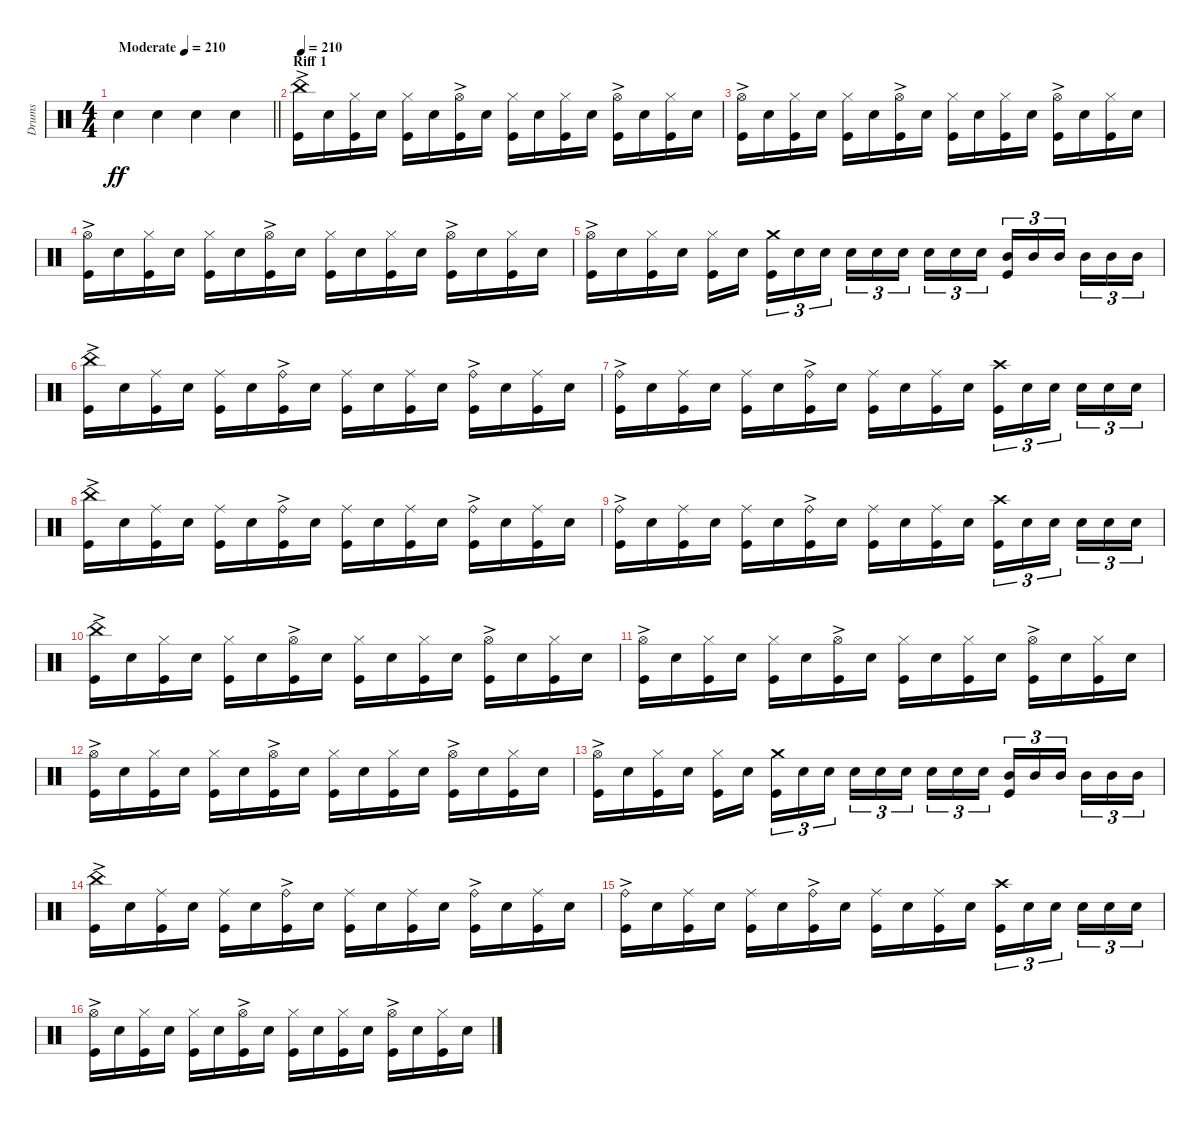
\track ("Drums" "Drums") {instrument percussion}
\staff {score}
\articulation defaults
\ts (4 4)
\tempo (210 "Moderate")
\clef neutral
\barLineRight lightlight
\ks c "Electric Snare (hit)".4{dy ff} "Electric Snare (hit)".4 "Electric Snare (hit)".4 "Electric Snare (hit)".4
|
\section ("" "Riff 1")
\tempo 210
("China (hit)"{ac} "Kick (hit)").16 "Electric Snare (hit)".16 ("Hi-Hat (closed)" "Kick (hit)").16 "Electric Snare (hit)".16 ("Hi-Hat (closed)" "Kick (hit)").16 "Electric Snare (hit)".16 ("Hi-Hat (open)"{ac} "Kick (hit)").16 "Electric Snare (hit)".16 ("Hi-Hat (closed)" "Kick (hit)").16 "Electric Snare (hit)".16 ("Hi-Hat (closed)" "Kick (hit)").16 "Electric Snare (hit)".16 ("Hi-Hat (open)"{ac} "Kick (hit)").16 "Electric Snare (hit)".16 ("Hi-Hat (closed)" "Kick (hit)").16 "Electric Snare (hit)".16 |
("Hi-Hat (open)"{ac} "Kick (hit)").16 "Electric Snare (hit)".16 ("Hi-Hat (closed)" "Kick (hit)").16 "Electric Snare (hit)".16 ("Hi-Hat (closed)" "Kick (hit)").16 "Electric Snare (hit)".16 ("Hi-Hat (open)"{ac} "Kick (hit)").16 "Electric Snare (hit)".16 ("Hi-Hat (closed)" "Kick (hit)").16 "Electric Snare (hit)".16 ("Hi-Hat (closed)" "Kick (hit)").16 "Electric Snare (hit)".16 ("Hi-Hat (open)"{ac} "Kick (hit)").16 "Electric Snare (hit)".16 ("Hi-Hat (closed)" "Kick (hit)").16 "Electric Snare (hit)".16 |
("Hi-Hat (open)"{ac} "Kick (hit)").16 "Electric Snare (hit)".16 ("Hi-Hat (closed)" "Kick (hit)").16 "Electric Snare (hit)".16 ("Hi-Hat (closed)" "Kick (hit)").16 "Electric Snare (hit)".16 ("Hi-Hat (open)"{ac} "Kick (hit)").16 "Electric Snare (hit)".16 ("Hi-Hat (closed)" "Kick (hit)").16 "Electric Snare (hit)".16 ("Hi-Hat (closed)" "Kick (hit)").16 "Electric Snare (hit)".16 ("Hi-Hat (open)"{ac} "Kick (hit)").16 "Electric Snare (hit)".16 ("Hi-Hat (closed)" "Kick (hit)").16 "Electric Snare (hit)".16 |
("Hi-Hat (open)"{ac} "Kick (hit)").16 "Electric Snare (hit)".16 ("Hi-Hat (closed)" "Kick (hit)").16 "Electric Snare (hit)".16 ("Hi-Hat (closed)" "Kick (hit)").16 "Electric Snare (hit)".16{beam splitsecondary} ("Crash medium (hit)" "Kick (hit)").16{tu (3 2)} "Electric Snare (hit)".16{tu (3 2)} "Electric Snare (hit)".16{tu (3 2)} "Electric Snare (hit)".16{tu (3 2)} "Electric Snare (hit)".16{tu (3 2)} "Electric Snare (hit)".16{tu (3 2) beam splitsecondary} "Electric Snare (hit)".16{tu (3 2)} "Electric Snare (hit)".16{tu (3 2)} "Electric Snare (hit)".16{tu (3 2)} ("Mid Tom (hit)" "Kick (hit)").16{tu (3 2)} "Mid Tom (hit)".16{tu (3 2)} "Mid Tom (hit)".16{tu (3 2) beam splitsecondary} "Mid Tom (hit)".16{tu (3 2)} "Mid Tom (hit)".16{tu (3 2)} "Mid Tom (hit)".16{tu (3 2)} |
("China (hit)"{ac} "Kick (hit)").16 "Electric Snare (hit)".16 ("Ride (middle)" "Kick (hit)").16 "Electric Snare (hit)".16 ("Ride (middle)" "Kick (hit)").16 "Electric Snare (hit)".16 ("Ride (bell)"{ac} "Kick (hit)").16 "Electric Snare (hit)".16 ("Ride (middle)" "Kick (hit)").16 "Electric Snare (hit)".16 ("Ride (middle)" "Kick (hit)").16 "Electric Snare (hit)".16 ("Ride (bell)"{ac} "Kick (hit)").16 "Electric Snare (hit)".16 ("Ride (middle)" "Kick (hit)").16 "Electric Snare (hit)".16 |
("Ride (bell)"{ac} "Kick (hit)").16 "Electric Snare (hit)".16 ("Ride (middle)" "Kick (hit)").16 "Electric Snare (hit)".16 ("Ride (middle)" "Kick (hit)").16 "Electric Snare (hit)".16 ("Ride (bell)"{ac} "Kick (hit)").16 "Electric Snare (hit)".16 ("Ride (middle)" "Kick (hit)").16 "Electric Snare (hit)".16 ("Ride (middle)" "Kick (hit)").16 "Electric Snare (hit)".16 ("Crash high (hit)" "Kick (hit)").16{tu (3 2)} "Electric Snare (hit)".16{tu (3 2)} "Electric Snare (hit)".16{tu (3 2) beam splitsecondary} "Electric Snare (hit)".16{tu (3 2)} "Electric Snare (hit)".16{tu (3 2)} "Electric Snare (hit)".16{tu (3 2)} |
("China (hit)"{ac} "Kick (hit)").16 "Electric Snare (hit)".16 ("Ride (middle)" "Kick (hit)").16 "Electric Snare (hit)".16 ("Ride (middle)" "Kick (hit)").16 "Electric Snare (hit)".16 ("Ride (bell)"{ac} "Kick (hit)").16 "Electric Snare (hit)".16 ("Ride (middle)" "Kick (hit)").16 "Electric Snare (hit)".16 ("Ride (middle)" "Kick (hit)").16 "Electric Snare (hit)".16 ("Ride (bell)"{ac} "Kick (hit)").16 "Electric Snare (hit)".16 ("Ride (middle)" "Kick (hit)").16 "Electric Snare (hit)".16 |
("Ride (bell)"{ac} "Kick (hit)").16 "Electric Snare (hit)".16 ("Ride (middle)" "Kick (hit)").16 "Electric Snare (hit)".16 ("Ride (middle)" "Kick (hit)").16 "Electric Snare (hit)".16 ("Ride (bell)"{ac} "Kick (hit)").16 "Electric Snare (hit)".16 ("Ride (middle)" "Kick (hit)").16 "Electric Snare (hit)".16 ("Ride (middle)" "Kick (hit)").16 "Electric Snare (hit)".16 ("Crash high (hit)" "Kick (hit)").16{tu (3 2)} "Electric Snare (hit)".16{tu (3 2)} "Electric Snare (hit)".16{tu (3 2) beam splitsecondary} "Electric Snare (hit)".16{tu (3 2)} "Electric Snare (hit)".16{tu (3 2)} "Electric Snare (hit)".16{tu (3 2)} |
("China (hit)"{ac} "Kick (hit)").16 "Electric Snare (hit)".16 ("Hi-Hat (closed)" "Kick (hit)").16 "Electric Snare (hit)".16 ("Hi-Hat (closed)" "Kick (hit)").16 "Electric Snare (hit)".16 ("Hi-Hat (open)"{ac} "Kick (hit)").16 "Electric Snare (hit)".16 ("Hi-Hat (closed)" "Kick (hit)").16 "Electric Snare (hit)".16 ("Hi-Hat (closed)" "Kick (hit)").16 "Electric Snare (hit)".16 ("Hi-Hat (open)"{ac} "Kick (hit)").16 "Electric Snare (hit)".16 ("Hi-Hat (closed)" "Kick (hit)").16 "Electric Snare (hit)".16 |
("Hi-Hat (open)"{ac} "Kick (hit)").16 "Electric Snare (hit)".16 ("Hi-Hat (closed)" "Kick (hit)").16 "Electric Snare (hit)".16 ("Hi-Hat (closed)" "Kick (hit)").16 "Electric Snare (hit)".16 ("Hi-Hat (open)"{ac} "Kick (hit)").16 "Electric Snare (hit)".16 ("Hi-Hat (closed)" "Kick (hit)").16 "Electric Snare (hit)".16 ("Hi-Hat (closed)" "Kick (hit)").16 "Electric Snare (hit)".16 ("Hi-Hat (open)"{ac} "Kick (hit)").16 "Electric Snare (hit)".16 ("Hi-Hat (closed)" "Kick (hit)").16 "Electric Snare (hit)".16 |
("Hi-Hat (open)"{ac} "Kick (hit)").16 "Electric Snare (hit)".16 ("Hi-Hat (closed)" "Kick (hit)").16 "Electric Snare (hit)".16 ("Hi-Hat (closed)" "Kick (hit)").16 "Electric Snare (hit)".16 ("Hi-Hat (open)"{ac} "Kick (hit)").16 "Electric Snare (hit)".16 ("Hi-Hat (closed)" "Kick (hit)").16 "Electric Snare (hit)".16 ("Hi-Hat (closed)" "Kick (hit)").16 "Electric Snare (hit)".16 ("Hi-Hat (open)"{ac} "Kick (hit)").16 "Electric Snare (hit)".16 ("Hi-Hat (closed)" "Kick (hit)").16 "Electric Snare (hit)".16 |
("Hi-Hat (open)"{ac} "Kick (hit)").16 "Electric Snare (hit)".16 ("Hi-Hat (closed)" "Kick (hit)").16 "Electric Snare (hit)".16 ("Hi-Hat (closed)" "Kick (hit)").16 "Electric Snare (hit)".16{beam splitsecondary} ("Crash medium (hit)" "Kick (hit)").16{tu (3 2)} "Electric Snare (hit)".16{tu (3 2)} "Electric Snare (hit)".16{tu (3 2)} "Electric Snare (hit)".16{tu (3 2)} "Electric Snare (hit)".16{tu (3 2)} "Electric Snare (hit)".16{tu (3 2) beam splitsecondary} "Electric Snare (hit)".16{tu (3 2)} "Electric Snare (hit)".16{tu (3 2)} "Electric Snare (hit)".16{tu (3 2)} ("Mid Tom (hit)" "Kick (hit)").16{tu (3 2)} "Mid Tom (hit)".16{tu (3 2)} "Mid Tom (hit)".16{tu (3 2) beam splitsecondary} "Mid Tom (hit)".16{tu (3 2)} "Mid Tom (hit)".16{tu (3 2)} "Mid Tom (hit)".16{tu (3 2)} |
("China (hit)"{ac} "Kick (hit)").16 "Electric Snare (hit)".16 ("Ride (middle)" "Kick (hit)").16 "Electric Snare (hit)".16 ("Ride (middle)" "Kick (hit)").16 "Electric Snare (hit)".16 ("Ride (bell)"{ac} "Kick (hit)").16 "Electric Snare (hit)".16 ("Ride (middle)" "Kick (hit)").16 "Electric Snare (hit)".16 ("Ride (middle)" "Kick (hit)").16 "Electric Snare (hit)".16 ("Ride (bell)"{ac} "Kick (hit)").16 "Electric Snare (hit)".16 ("Ride (middle)" "Kick (hit)").16 "Electric Snare (hit)".16 |
("Ride (bell)"{ac} "Kick (hit)").16 "Electric Snare (hit)".16 ("Ride (middle)" "Kick (hit)").16 "Electric Snare (hit)".16 ("Ride (middle)" "Kick (hit)").16 "Electric Snare (hit)".16 ("Ride (bell)"{ac} "Kick (hit)").16 "Electric Snare (hit)".16 ("Ride (middle)" "Kick (hit)").16 "Electric Snare (hit)".16 ("Ride (middle)" "Kick (hit)").16 "Electric Snare (hit)".16 ("Crash high (hit)" "Kick (hit)").16{tu (3 2)} "Electric Snare (hit)".16{tu (3 2)} "Electric Snare (hit)".16{tu (3 2) beam splitsecondary} "Electric Snare (hit)".16{tu (3 2)} "Electric Snare (hit)".16{tu (3 2)} "Electric Snare (hit)".16{tu (3 2)} |
("Hi-Hat (open)"{ac} "Kick (hit)").16 "Electric Snare (hit)".16 ("Hi-Hat (closed)" "Kick (hit)").16 "Electric Snare (hit)".16 ("Hi-Hat (closed)" "Kick (hit)").16 "Electric Snare (hit)".16 ("Hi-Hat (open)"{ac} "Kick (hit)").16 "Electric Snare (hit)".16 ("Hi-Hat (closed)" "Kick (hit)").16 "Electric Snare (hit)".16 ("Hi-Hat (closed)" "Kick (hit)").16 "Electric Snare (hit)".16 ("Hi-Hat (open)"{ac} "Kick (hit)").16 "Electric Snare (hit)".16 ("Hi-Hat (closed)" "Kick (hit)").16 "Electric Snare (hit)".16
